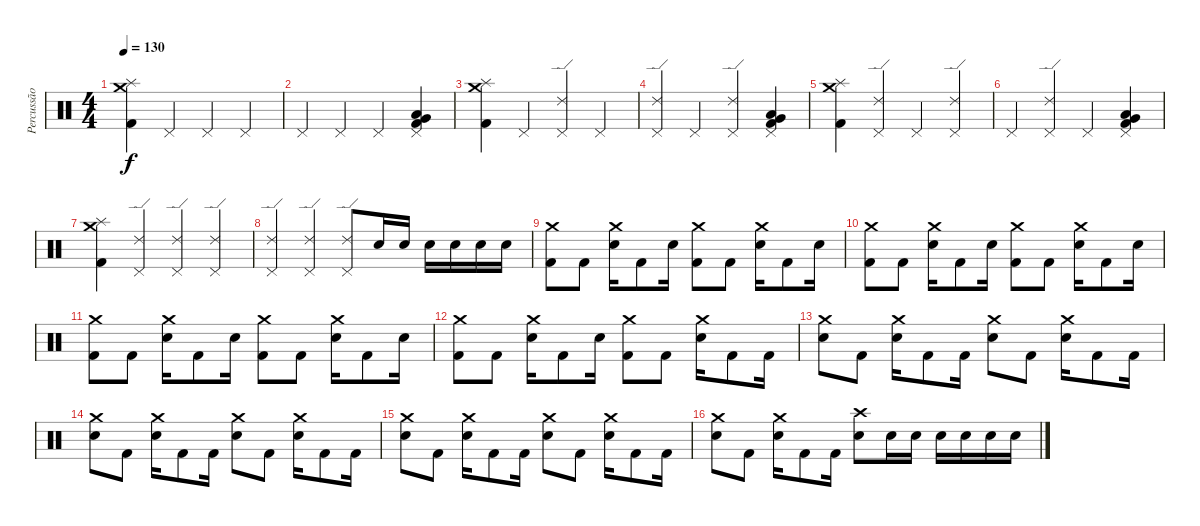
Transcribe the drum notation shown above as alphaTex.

\track ("Percussão" "Percussão") {instrument percussion}
\staff {score}
\articulation defaults
\ts (4 4)
\tempo 130
\clef neutral
\ks c
("Splash (hit)" "Crash medium (hit)" "Kick (hit) 2").4{dy f} "Pedal Hi-Hat (hit)".4 "Pedal Hi-Hat (hit)".4 "Pedal Hi-Hat (hit)".4 |
"Pedal Hi-Hat (hit)".4 "Pedal Hi-Hat (hit)".4 "Pedal Hi-Hat (hit)".4 ("Pedal Hi-Hat (hit)" "Very Low Tom (hit)" "Low Tom (hit)" "Kick (hit) 2").4 |
("Splash (hit)" "Crash medium (hit)" "Kick (hit) 2").4 "Pedal Hi-Hat (hit)".4 ("Pedal Hi-Hat (hit)" "Ride (edge) 2").4 "Pedal Hi-Hat (hit)".4 |
("Pedal Hi-Hat (hit)" "Ride (edge) 2").4 "Pedal Hi-Hat (hit)".4 ("Pedal Hi-Hat (hit)" "Ride (edge) 2").4 ("Pedal Hi-Hat (hit)" "Very Low Tom (hit)" "Low Tom (hit)" "Kick (hit) 2").4 |
("Splash (hit)" "Crash medium (hit)" "Kick (hit) 2").4 ("Pedal Hi-Hat (hit)" "Ride (edge) 2").4 "Pedal Hi-Hat (hit)".4 ("Pedal Hi-Hat (hit)" "Ride (edge) 2").4 |
"Pedal Hi-Hat (hit)".4 ("Pedal Hi-Hat (hit)" "Ride (edge) 2").4 "Pedal Hi-Hat (hit)".4 ("Pedal Hi-Hat (hit)" "Very Low Tom (hit)" "Low Tom (hit)" "Kick (hit) 2").4 |
("Splash (hit)" "Crash medium (hit)" "Kick (hit) 2").4 ("Pedal Hi-Hat (hit)" "Ride (edge) 2").4 ("Pedal Hi-Hat (hit)" "Ride (edge) 2").4 ("Pedal Hi-Hat (hit)" "Ride (edge) 2").4 |
("Pedal Hi-Hat (hit)" "Ride (edge) 2").4 ("Pedal Hi-Hat (hit)" "Ride (edge) 2").4 ("Pedal Hi-Hat (hit)" "Ride (edge) 2").8 "Snare (hit) 2".16 "Snare (hit) 2".16 "Snare (hit) 2".16 "Snare (hit) 2".16 "Snare (hit) 2".16 "Snare (hit) 2".16 |
("Crash medium (hit)" "Kick (hit) 2").8 "Kick (hit) 2".8 ("Crash medium (hit)" "Snare (hit) 2").16 "Kick (hit) 2".8 "Snare (hit) 2".16 ("Crash medium (hit)" "Kick (hit) 2").8 "Kick (hit) 2".8 ("Crash medium (hit)" "Snare (hit) 2").16 "Kick (hit) 2".8 "Snare (hit) 2".16 |
("Crash medium (hit)" "Kick (hit) 2").8 "Kick (hit) 2".8 ("Crash medium (hit)" "Snare (hit) 2").16 "Kick (hit) 2".8 "Snare (hit) 2".16 ("Crash medium (hit)" "Kick (hit) 2").8 "Kick (hit) 2".8 ("Crash medium (hit)" "Snare (hit) 2").16 "Kick (hit) 2".8 "Snare (hit) 2".16 |
("Crash medium (hit)" "Kick (hit) 2").8 "Kick (hit) 2".8 ("Crash medium (hit)" "Snare (hit) 2").16 "Kick (hit) 2".8 "Snare (hit) 2".16 ("Crash medium (hit)" "Kick (hit) 2").8 "Kick (hit) 2".8 ("Crash medium (hit)" "Snare (hit) 2").16 "Kick (hit) 2".8 "Snare (hit) 2".16 |
("Crash medium (hit)" "Kick (hit) 2").8 "Kick (hit) 2".8 ("Crash medium (hit)" "Snare (hit) 2").16 "Kick (hit) 2".8 "Snare (hit) 2".16 ("Crash medium (hit)" "Kick (hit) 2").8 "Kick (hit) 2".8 ("Crash medium (hit)" "Snare (hit) 2").16 "Kick (hit) 2".8 "Kick (hit) 2".16 |
("Crash medium (hit)" "Snare (hit) 2").8 "Kick (hit) 2".8 ("Crash medium (hit)" "Snare (hit) 2").16 "Kick (hit) 2".8 "Kick (hit) 2".16 ("Crash medium (hit)" "Snare (hit) 2").8 "Kick (hit) 2".8 ("Crash medium (hit)" "Snare (hit) 2").16 "Kick (hit) 2".8 "Kick (hit) 2".16 |
("Crash medium (hit)" "Snare (hit) 2").8 "Kick (hit) 2".8 ("Crash medium (hit)" "Snare (hit) 2").16 "Kick (hit) 2".8 "Kick (hit) 2".16 ("Crash medium (hit)" "Snare (hit) 2").8 "Kick (hit) 2".8 ("Crash medium (hit)" "Snare (hit) 2").16 "Kick (hit) 2".8 "Kick (hit) 2".16 |
("Crash medium (hit)" "Snare (hit) 2").8 "Kick (hit) 2".8 ("Crash medium (hit)" "Snare (hit) 2").16 "Kick (hit) 2".8 "Kick (hit) 2".16 ("Crash medium (hit)" "Snare (hit) 2").8 "Kick (hit) 2".8 ("Crash medium (hit)" "Snare (hit) 2").16 "Kick (hit) 2".8 "Kick (hit) 2".16 |
("Crash medium (hit)" "Snare (hit) 2").8 "Kick (hit) 2".8 ("Crash medium (hit)" "Snare (hit) 2").16 "Kick (hit) 2".8 "Kick (hit) 2".16 ("Crash high (hit)" "Snare (hit) 2").8 "Snare (hit) 2".16 "Snare (hit) 2".16 "Snare (hit) 2".16 "Snare (hit) 2".16 "Snare (hit) 2".16 "Snare (hit) 2".16
